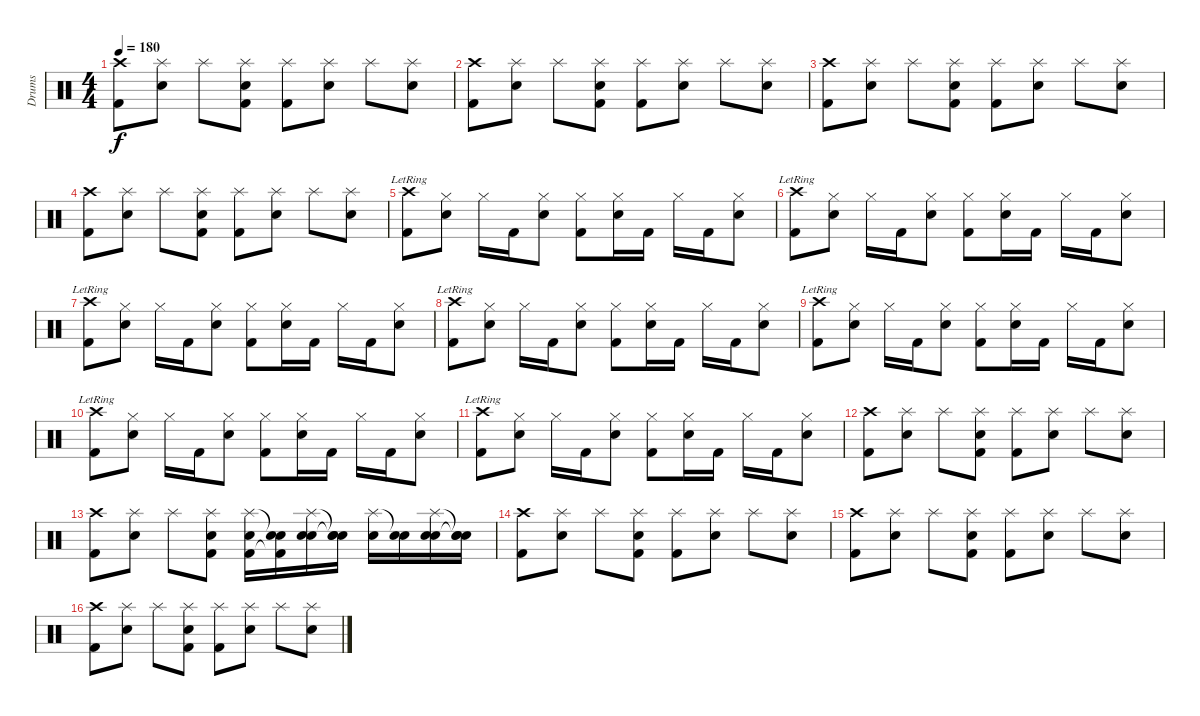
\track ("Drums" "Drums") {instrument percussion}
\staff {score}
\articulation defaults
\ts (4 4)
\tempo 180
\clef neutral
\ks c
("Crash high (hit)" "Kick (hit) 2").8{dy f} ("Splash (hit)" "Snare (hit) 2").8 "Splash (hit)".8 ("Splash (hit)" "Snare (hit) 2" "Kick (hit) 2").8 ("Splash (hit)" "Kick (hit) 2").8 ("Splash (hit)" "Snare (hit) 2").8 "Splash (hit)".8 ("Splash (hit)" "Snare (hit) 2").8 |
("Crash high (hit)" "Kick (hit) 2").8 ("Splash (hit)" "Snare (hit) 2").8 "Splash (hit)".8 ("Splash (hit)" "Snare (hit) 2" "Kick (hit) 2").8 ("Splash (hit)" "Kick (hit) 2").8 ("Splash (hit)" "Snare (hit) 2").8 "Splash (hit)".8 ("Splash (hit)" "Snare (hit) 2").8 |
("Crash high (hit)" "Kick (hit) 2").8 ("Splash (hit)" "Snare (hit) 2").8 "Splash (hit)".8 ("Splash (hit)" "Snare (hit) 2" "Kick (hit) 2").8 ("Splash (hit)" "Kick (hit) 2").8 ("Splash (hit)" "Snare (hit) 2").8 "Splash (hit)".8 ("Splash (hit)" "Snare (hit) 2").8 |
("Crash high (hit)" "Kick (hit) 2").8 ("Splash (hit)" "Snare (hit) 2").8 "Splash (hit)".8 ("Splash (hit)" "Snare (hit) 2" "Kick (hit) 2").8 ("Splash (hit)" "Kick (hit) 2").8 ("Splash (hit)" "Snare (hit) 2").8 "Splash (hit)".8 ("Splash (hit)" "Snare (hit) 2").8 |
("Crash high (hit)"{lr} "Kick (hit) 2").8 ("Hi-Hat (closed)" "Snare (hit) 2").8 "Hi-Hat (closed)".16 "Kick (hit) 2".16 ("Hi-Hat (closed)" "Snare (hit) 2").8 ("Hi-Hat (closed)" "Kick (hit) 2").8 ("Hi-Hat (closed)" "Snare (hit) 2").16 "Kick (hit) 2".16 "Hi-Hat (closed)".16 "Kick (hit) 2".16 ("Hi-Hat (closed)" "Snare (hit) 2").8 |
("Crash high (hit)"{lr} "Kick (hit) 2").8 ("Hi-Hat (closed)" "Snare (hit) 2").8 "Hi-Hat (closed)".16 "Kick (hit) 2".16 ("Hi-Hat (closed)" "Snare (hit) 2").8 ("Hi-Hat (closed)" "Kick (hit) 2").8 ("Hi-Hat (closed)" "Snare (hit) 2").16 "Kick (hit) 2".16 "Hi-Hat (closed)".16 "Kick (hit) 2".16 ("Hi-Hat (closed)" "Snare (hit) 2").8 |
("Crash high (hit)"{lr} "Kick (hit) 2").8 ("Hi-Hat (closed)" "Snare (hit) 2").8 "Hi-Hat (closed)".16 "Kick (hit) 2".16 ("Hi-Hat (closed)" "Snare (hit) 2").8 ("Hi-Hat (closed)" "Kick (hit) 2").8 ("Hi-Hat (closed)" "Snare (hit) 2").16 "Kick (hit) 2".16 "Hi-Hat (closed)".16 "Kick (hit) 2".16 ("Hi-Hat (closed)" "Snare (hit) 2").8 |
("Crash high (hit)"{lr} "Kick (hit) 2").8 ("Hi-Hat (closed)" "Snare (hit) 2").8 "Hi-Hat (closed)".16 "Kick (hit) 2".16 ("Hi-Hat (closed)" "Snare (hit) 2").8 ("Hi-Hat (closed)" "Kick (hit) 2").8 ("Hi-Hat (closed)" "Snare (hit) 2").16 "Kick (hit) 2".16 "Hi-Hat (closed)".16 "Kick (hit) 2".16 ("Hi-Hat (closed)" "Snare (hit) 2").8 |
("Crash high (hit)"{lr} "Kick (hit) 2").8 ("Hi-Hat (closed)" "Snare (hit) 2").8 "Hi-Hat (closed)".16 "Kick (hit) 2".16 ("Hi-Hat (closed)" "Snare (hit) 2").8 ("Hi-Hat (closed)" "Kick (hit) 2").8 ("Hi-Hat (closed)" "Snare (hit) 2").16 "Kick (hit) 2".16 "Hi-Hat (closed)".16 "Kick (hit) 2".16 ("Hi-Hat (closed)" "Snare (hit) 2").8 |
("Crash high (hit)"{lr} "Kick (hit) 2").8 ("Hi-Hat (closed)" "Snare (hit) 2").8 "Hi-Hat (closed)".16 "Kick (hit) 2".16 ("Hi-Hat (closed)" "Snare (hit) 2").8 ("Hi-Hat (closed)" "Kick (hit) 2").8 ("Hi-Hat (closed)" "Snare (hit) 2").16 "Kick (hit) 2".16 "Hi-Hat (closed)".16 "Kick (hit) 2".16 ("Hi-Hat (closed)" "Snare (hit) 2").8 |
("Crash high (hit)"{lr} "Kick (hit) 2").8 ("Hi-Hat (closed)" "Snare (hit) 2").8 "Hi-Hat (closed)".16 "Kick (hit) 2".16 ("Hi-Hat (closed)" "Snare (hit) 2").8 ("Hi-Hat (closed)" "Kick (hit) 2").8 ("Hi-Hat (closed)" "Snare (hit) 2").16 "Kick (hit) 2".16 "Hi-Hat (closed)".16 "Kick (hit) 2".16 ("Hi-Hat (closed)" "Snare (hit) 2").8 |
("Crash high (hit)" "Kick (hit) 2").8 ("Splash (hit)" "Snare (hit) 2").8 "Splash (hit)".8 ("Splash (hit)" "Snare (hit) 2" "Kick (hit) 2").8 ("Splash (hit)" "Kick (hit) 2").8 ("Splash (hit)" "Snare (hit) 2").8 "Splash (hit)".8 ("Splash (hit)" "Snare (hit) 2").8 |
("Crash high (hit)" "Kick (hit) 2").8 ("Splash (hit)" "Snare (hit) 2").8 "Splash (hit)".8 ("Splash (hit)" "Snare (hit) 2" "Kick (hit) 2").8 ("Splash (hit)" "Kick (hit) 2" "Electric Snare (hit)").16 ("Snare (hit)"{t} "Kick (hit) 2"{t} "Electric Snare (hit)").16 ("Splash (hit)" "Snare (hit) 2" "Electric Snare (hit)").16 ("Snare (hit)"{t} "Snare (hit)"{t} "Electric Snare (hit)").16 ("Splash (hit)" "Electric Snare (hit)").16 ("Snare (hit)"{t} "Electric Snare (hit)").16 ("Splash (hit)" "Snare (hit) 2" "Electric Snare (hit)").16 ("Snare (hit)"{t} "Snare (hit) 2"{t} "Electric Snare (hit)").16 |
("Crash high (hit)" "Kick (hit) 2").8 ("Splash (hit)" "Snare (hit) 2").8 "Splash (hit)".8 ("Splash (hit)" "Snare (hit) 2" "Kick (hit) 2").8 ("Splash (hit)" "Kick (hit) 2").8 ("Splash (hit)" "Snare (hit) 2").8 "Splash (hit)".8 ("Splash (hit)" "Snare (hit) 2").8 |
("Crash high (hit)" "Kick (hit) 2").8 ("Splash (hit)" "Snare (hit) 2").8 "Splash (hit)".8 ("Splash (hit)" "Snare (hit) 2" "Kick (hit) 2").8 ("Splash (hit)" "Kick (hit) 2").8 ("Splash (hit)" "Snare (hit) 2").8 "Splash (hit)".8 ("Splash (hit)" "Snare (hit) 2").8 |
("Crash high (hit)" "Kick (hit) 2").8 ("Splash (hit)" "Snare (hit) 2").8 "Splash (hit)".8 ("Splash (hit)" "Snare (hit) 2" "Kick (hit) 2").8 ("Splash (hit)" "Kick (hit) 2").8 ("Splash (hit)" "Snare (hit) 2").8 "Splash (hit)".8 ("Splash (hit)" "Snare (hit) 2").8
